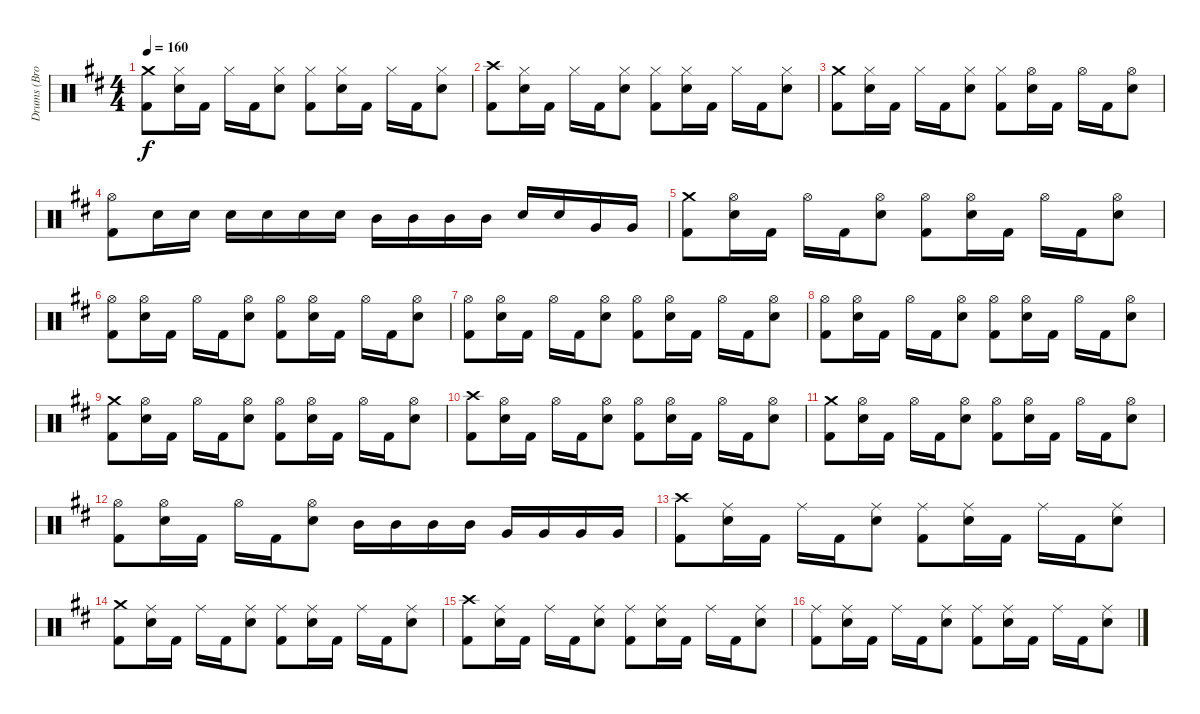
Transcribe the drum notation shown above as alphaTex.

\track ("Drums (Brooks Wackerman)" "Drums (Bro") {instrument percussion}
\staff {score}
\articulation defaults
\ts (4 4)
\tempo 160
\clef neutral
\ks d
("Crash medium (hit)" "Kick (hit) 2").8{dy f} ("Hi-Hat (closed)" "Snare (hit) 2").16 "Kick (hit) 2".16 "Hi-Hat (closed)".16 "Kick (hit) 2".16 ("Hi-Hat (closed)" "Snare (hit) 2").8 ("Hi-Hat (closed)" "Kick (hit) 2").8 ("Hi-Hat (closed)" "Snare (hit) 2").16 "Kick (hit) 2".16 "Hi-Hat (closed)".16 "Kick (hit) 2".16 ("Hi-Hat (closed)" "Snare (hit) 2").8 |
("Crash high (hit)" "Kick (hit) 2").8 ("Hi-Hat (closed)" "Snare (hit) 2").16 "Kick (hit) 2".16 "Hi-Hat (closed)".16 "Kick (hit) 2".16 ("Hi-Hat (closed)" "Snare (hit) 2").8 ("Hi-Hat (closed)" "Kick (hit) 2").8 ("Hi-Hat (closed)" "Snare (hit) 2").16 "Kick (hit) 2".16 "Hi-Hat (closed)".16 "Kick (hit) 2".16 ("Hi-Hat (closed)" "Snare (hit) 2").8 |
("Crash medium (hit)" "Kick (hit) 2").8 ("Hi-Hat (closed)" "Snare (hit) 2").16 "Kick (hit) 2".16 "Hi-Hat (closed)".16 "Kick (hit) 2".16 ("Hi-Hat (closed)" "Snare (hit) 2").8 ("Hi-Hat (closed)" "Kick (hit) 2").8 ("Hi-Hat (open)" "Snare (hit) 2").16 "Kick (hit) 2".16 "Hi-Hat (open)".16 "Kick (hit) 2".16 ("Hi-Hat (open)" "Snare (hit) 2").8 |
("Hi-Hat (open)" "Kick (hit) 2").8 "Snare (hit) 2".16 "Snare (hit) 2".16 "Snare (hit) 2".16 "Snare (hit) 2".16 "Snare (hit) 2".16 "Snare (hit) 2".16 "Mid Tom (hit)".16 "Mid Tom (hit)".16 "Mid Tom (hit)".16 "Mid Tom (hit)".16 "Snare (hit) 2".16 "Snare (hit) 2".16 "Very Low Tom (hit)".16 "Very Low Tom (hit)".16 |
("Crash medium (hit)" "Kick (hit) 2").8 ("Hi-Hat (open)" "Snare (hit) 2").16 "Kick (hit) 2".16 "Hi-Hat (open)".16 "Kick (hit) 2".16 ("Hi-Hat (open)" "Snare (hit) 2").8 ("Hi-Hat (open)" "Kick (hit) 2").8 ("Hi-Hat (open)" "Snare (hit) 2").16 "Kick (hit) 2".16 "Hi-Hat (open)".16 "Kick (hit) 2".16 ("Hi-Hat (open)" "Snare (hit) 2").8 |
("Hi-Hat (open)" "Kick (hit) 2").8 ("Hi-Hat (open)" "Snare (hit) 2").16 "Kick (hit) 2".16 "Hi-Hat (open)".16 "Kick (hit) 2".16 ("Hi-Hat (open)" "Snare (hit) 2").8 ("Hi-Hat (open)" "Kick (hit) 2").8 ("Hi-Hat (open)" "Snare (hit) 2").16 "Kick (hit) 2".16 "Hi-Hat (open)".16 "Kick (hit) 2".16 ("Hi-Hat (open)" "Snare (hit) 2").8 |
("Hi-Hat (open)" "Kick (hit) 2").8 ("Hi-Hat (open)" "Snare (hit) 2").16 "Kick (hit) 2".16 "Hi-Hat (open)".16 "Kick (hit) 2".16 ("Hi-Hat (open)" "Snare (hit) 2").8 ("Hi-Hat (open)" "Kick (hit) 2").8 ("Hi-Hat (open)" "Snare (hit) 2").16 "Kick (hit) 2".16 "Hi-Hat (open)".16 "Kick (hit) 2".16 ("Hi-Hat (open)" "Snare (hit) 2").8 |
("Hi-Hat (open)" "Kick (hit) 2").8 ("Hi-Hat (open)" "Snare (hit) 2").16 "Kick (hit) 2".16 "Hi-Hat (open)".16 "Kick (hit) 2".16 ("Hi-Hat (open)" "Snare (hit) 2").8 ("Hi-Hat (open)" "Kick (hit) 2").8 ("Hi-Hat (open)" "Snare (hit) 2").16 "Kick (hit) 2".16 "Hi-Hat (open)".16 "Kick (hit) 2".16 ("Hi-Hat (open)" "Snare (hit) 2").8 |
("Crash medium (hit)" "Kick (hit) 2").8 ("Hi-Hat (open)" "Snare (hit) 2").16 "Kick (hit) 2".16 "Hi-Hat (open)".16 "Kick (hit) 2".16 ("Hi-Hat (open)" "Snare (hit) 2").8 ("Hi-Hat (open)" "Kick (hit) 2").8 ("Hi-Hat (open)" "Snare (hit) 2").16 "Kick (hit) 2".16 "Hi-Hat (open)".16 "Kick (hit) 2".16 ("Hi-Hat (open)" "Snare (hit) 2").8 |
("Crash high (hit)" "Kick (hit) 2").8 ("Hi-Hat (open)" "Snare (hit) 2").16 "Kick (hit) 2".16 "Hi-Hat (open)".16 "Kick (hit) 2".16 ("Hi-Hat (open)" "Snare (hit) 2").8 ("Hi-Hat (open)" "Kick (hit) 2").8 ("Hi-Hat (open)" "Snare (hit) 2").16 "Kick (hit) 2".16 "Hi-Hat (open)".16 "Kick (hit) 2".16 ("Hi-Hat (open)" "Snare (hit) 2").8 |
("Crash medium (hit)" "Kick (hit) 2").8 ("Hi-Hat (open)" "Snare (hit) 2").16 "Kick (hit) 2".16 "Hi-Hat (open)".16 "Kick (hit) 2".16 ("Hi-Hat (open)" "Snare (hit) 2").8 ("Hi-Hat (open)" "Kick (hit) 2").8 ("Hi-Hat (open)" "Snare (hit) 2").16 "Kick (hit) 2".16 "Hi-Hat (open)".16 "Kick (hit) 2".16 ("Hi-Hat (open)" "Snare (hit) 2").8 |
("Hi-Hat (open)" "Kick (hit) 2").8 ("Hi-Hat (open)" "Snare (hit) 2").16 "Kick (hit) 2".16 "Hi-Hat (open)".16 "Kick (hit) 2".16 ("Hi-Hat (open)" "Snare (hit) 2").8 "Mid Tom (hit)".16 "Mid Tom (hit)".16 "Mid Tom (hit)".16 "Mid Tom (hit)".16 "Very Low Tom (hit)".16 "Very Low Tom (hit)".16 "Very Low Tom (hit)".16 "Very Low Tom (hit)".16 |
("Crash high (hit)" "Kick (hit) 2").8 ("Ride (middle)" "Snare (hit) 2").16 "Kick (hit) 2".16 "Ride (middle)".16 "Kick (hit) 2".16 ("Ride (middle)" "Snare (hit) 2").8 ("Ride (middle)" "Kick (hit) 2").8 ("Ride (middle)" "Snare (hit) 2").16 "Kick (hit) 2".16 "Ride (middle)".16 "Kick (hit) 2".16 ("Ride (middle)" "Snare (hit) 2").8 |
("Crash medium (hit)" "Kick (hit) 2").8 ("Ride (middle)" "Snare (hit) 2").16 "Kick (hit) 2".16 "Ride (middle)".16 "Kick (hit) 2".16 ("Ride (middle)" "Snare (hit) 2").8 ("Ride (middle)" "Kick (hit) 2").8 ("Ride (middle)" "Snare (hit) 2").16 "Kick (hit) 2".16 "Ride (middle)".16 "Kick (hit) 2".16 ("Ride (middle)" "Snare (hit) 2").8 |
("Crash high (hit)" "Kick (hit) 2").8 ("Ride (middle)" "Snare (hit) 2").16 "Kick (hit) 2".16 "Ride (middle)".16 "Kick (hit) 2".16 ("Ride (middle)" "Snare (hit) 2").8 ("Ride (middle)" "Kick (hit) 2").8 ("Ride (middle)" "Snare (hit) 2").16 "Kick (hit) 2".16 "Ride (middle)".16 "Kick (hit) 2".16 ("Ride (middle)" "Snare (hit) 2").8 |
("Ride (middle)" "Kick (hit) 2").8 ("Ride (middle)" "Snare (hit) 2").16 "Kick (hit) 2".16 "Ride (middle)".16 "Kick (hit) 2".16 ("Ride (middle)" "Snare (hit) 2").8 ("Ride (middle)" "Kick (hit) 2").8 ("Ride (middle)" "Snare (hit) 2").16 "Kick (hit) 2".16 "Ride (middle)".16 "Kick (hit) 2".16 ("Ride (middle)" "Snare (hit) 2").8
